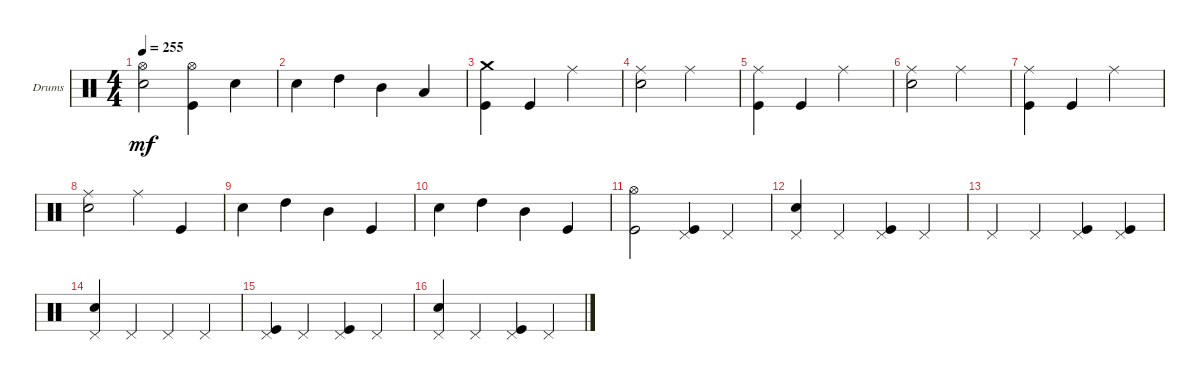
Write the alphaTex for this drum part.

\bracketExtendMode groupsimilarinstruments
\firstSystemTrackNameOrientation horizontal
\otherSystemsTrackNameOrientation horizontal
\track ("Drums" "Drums") {instrument percussion}
\staff {score}
\articulation defaults
\ts (4 4)
\tempo 255
\clef neutral
\ks c
("Snare (hit) 2" "Hi-Hat (open)").2{dy mf} ("Kick (hit)" "Hi-Hat (open)").4 "Snare (hit) 2".4 |
"Snare (hit) 2".4 "High Tom (hit)".4 "Mid Tom (hit)".4 "Low Tom (hit)".4 |
("Kick (hit)" "Crash medium (hit)").4 "Kick (hit)".4 "Ride (middle)".2 |
("Snare (hit) 2" "Ride (middle)").2 "Ride (middle)".2 |
("Kick (hit)" "Ride (middle)").4 "Kick (hit)".4 "Ride (middle)".2 |
("Snare (hit) 2" "Ride (middle)").2 "Ride (middle)".2 |
("Kick (hit)" "Ride (middle)").4 "Kick (hit)".4 "Ride (middle)".2 |
("Snare (hit) 2" "Ride (middle)").2 "Ride (middle)".4 "Kick (hit)".4 |
"Snare (hit) 2".4 "High Tom (hit)".4 "Mid Tom (hit)".4 "Kick (hit)".4 |
"Snare (hit) 2".4 "High Tom (hit)".4 "Mid Tom (hit)".4 "Kick (hit)".4 |
("Kick (hit)" "Hi-Hat (open)").2 ("Kick (hit)" "Pedal Hi-Hat (hit)").4 "Pedal Hi-Hat (hit)".4 |
("Snare (hit) 2" "Pedal Hi-Hat (hit)").4 "Pedal Hi-Hat (hit)".4 ("Kick (hit)" "Pedal Hi-Hat (hit)").4 "Pedal Hi-Hat (hit)".4 |
"Pedal Hi-Hat (hit)".4 "Pedal Hi-Hat (hit)".4 ("Kick (hit)" "Pedal Hi-Hat (hit)").4 ("Kick (hit)" "Pedal Hi-Hat (hit)").4 |
("Snare (hit) 2" "Pedal Hi-Hat (hit)").4 "Pedal Hi-Hat (hit)".4 "Pedal Hi-Hat (hit)".4 "Pedal Hi-Hat (hit)".4 |
("Kick (hit)" "Pedal Hi-Hat (hit)").4 "Pedal Hi-Hat (hit)".4 ("Kick (hit)" "Pedal Hi-Hat (hit)").4 "Pedal Hi-Hat (hit)".4 |
("Snare (hit) 2" "Pedal Hi-Hat (hit)").4 "Pedal Hi-Hat (hit)".4 ("Kick (hit)" "Pedal Hi-Hat (hit)").4 "Pedal Hi-Hat (hit)".4
